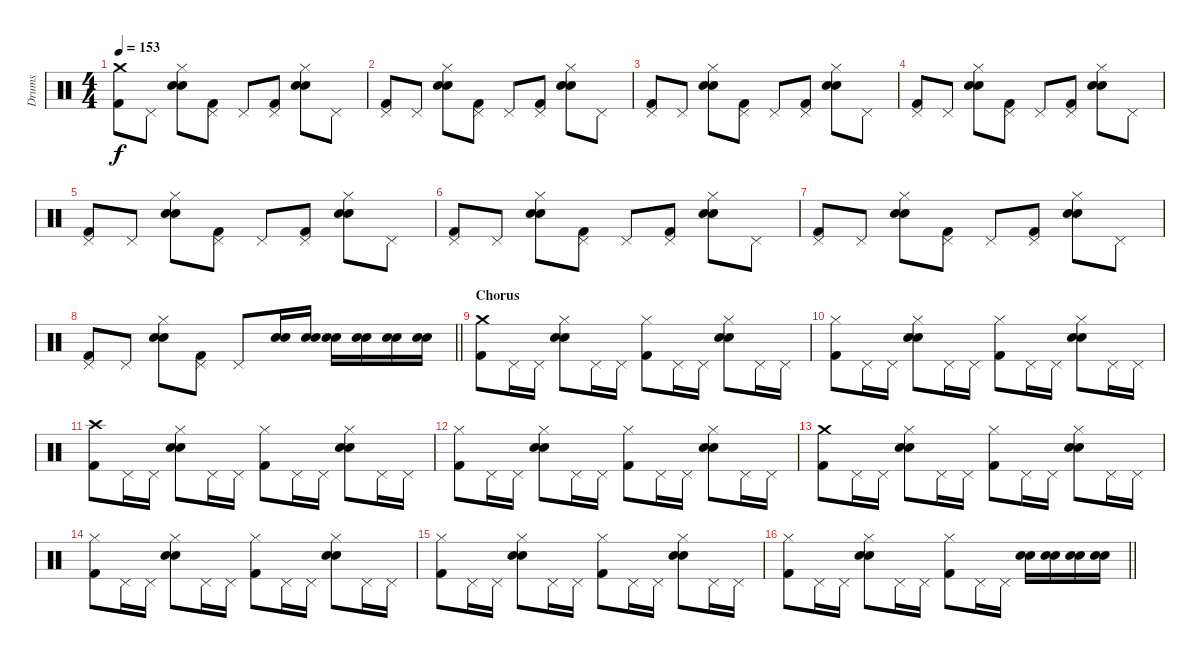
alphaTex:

\track ("Drums" "Drums") {instrument percussion}
\staff {score}
\articulation defaults
\ts (4 4)
\section ("" "")
\tempo 153
\clef neutral
\ks c
("Crash medium (hit)" "Kick (hit) 2").8{dy f} "Pedal Hi-Hat (hit)".8 ("Hi-Hat (closed)" "Electric Snare (hit)" "Snare (hit) 2").8 ("Pedal Hi-Hat (hit)" "Kick (hit) 2").8 "Pedal Hi-Hat (hit)".8 ("Pedal Hi-Hat (hit)" "Kick (hit) 2").8 ("Hi-Hat (closed)" "Electric Snare (hit)" "Snare (hit) 2").8 "Pedal Hi-Hat (hit)".8 |
("Pedal Hi-Hat (hit)" "Kick (hit) 2").8 "Pedal Hi-Hat (hit)".8 ("Hi-Hat (closed)" "Electric Snare (hit)" "Snare (hit) 2").8 ("Pedal Hi-Hat (hit)" "Kick (hit) 2").8 "Pedal Hi-Hat (hit)".8 ("Pedal Hi-Hat (hit)" "Kick (hit) 2").8 ("Hi-Hat (closed)" "Electric Snare (hit)" "Snare (hit) 2").8 "Pedal Hi-Hat (hit)".8 |
("Pedal Hi-Hat (hit)" "Kick (hit) 2").8 "Pedal Hi-Hat (hit)".8 ("Hi-Hat (closed)" "Electric Snare (hit)" "Snare (hit) 2").8 ("Pedal Hi-Hat (hit)" "Kick (hit) 2").8 "Pedal Hi-Hat (hit)".8 ("Pedal Hi-Hat (hit)" "Kick (hit) 2").8 ("Hi-Hat (closed)" "Electric Snare (hit)" "Snare (hit) 2").8 "Pedal Hi-Hat (hit)".8 |
("Pedal Hi-Hat (hit)" "Kick (hit) 2").8 "Pedal Hi-Hat (hit)".8 ("Hi-Hat (closed)" "Electric Snare (hit)" "Snare (hit) 2").8 ("Pedal Hi-Hat (hit)" "Kick (hit) 2").8 "Pedal Hi-Hat (hit)".8 ("Pedal Hi-Hat (hit)" "Kick (hit) 2").8 ("Hi-Hat (closed)" "Electric Snare (hit)" "Snare (hit) 2").8 "Pedal Hi-Hat (hit)".8 |
("Pedal Hi-Hat (hit)" "Kick (hit) 2").8 "Pedal Hi-Hat (hit)".8 ("Hi-Hat (closed)" "Electric Snare (hit)" "Snare (hit) 2").8 ("Pedal Hi-Hat (hit)" "Kick (hit) 2").8 "Pedal Hi-Hat (hit)".8 ("Pedal Hi-Hat (hit)" "Kick (hit) 2").8 ("Hi-Hat (closed)" "Electric Snare (hit)" "Snare (hit) 2").8 "Pedal Hi-Hat (hit)".8 |
("Pedal Hi-Hat (hit)" "Kick (hit) 2").8 "Pedal Hi-Hat (hit)".8 ("Hi-Hat (closed)" "Electric Snare (hit)" "Snare (hit) 2").8 ("Pedal Hi-Hat (hit)" "Kick (hit) 2").8 "Pedal Hi-Hat (hit)".8 ("Pedal Hi-Hat (hit)" "Kick (hit) 2").8 ("Hi-Hat (closed)" "Electric Snare (hit)" "Snare (hit) 2").8 "Pedal Hi-Hat (hit)".8 |
("Pedal Hi-Hat (hit)" "Kick (hit) 2").8 "Pedal Hi-Hat (hit)".8 ("Hi-Hat (closed)" "Electric Snare (hit)" "Snare (hit) 2").8 ("Pedal Hi-Hat (hit)" "Kick (hit) 2").8 "Pedal Hi-Hat (hit)".8 ("Pedal Hi-Hat (hit)" "Kick (hit) 2").8 ("Hi-Hat (closed)" "Electric Snare (hit)" "Snare (hit) 2").8 "Pedal Hi-Hat (hit)".8 |
\barLineRight lightlight
("Pedal Hi-Hat (hit)" "Kick (hit) 2").8 "Pedal Hi-Hat (hit)".8 ("Hi-Hat (closed)" "Electric Snare (hit)" "Snare (hit) 2").8 ("Pedal Hi-Hat (hit)" "Kick (hit) 2").8 "Pedal Hi-Hat (hit)".8 ("Electric Snare (hit)" "Snare (hit) 2").16 ("Electric Snare (hit)" "Snare (hit) 2").16 ("Electric Snare (hit)" "Snare (hit) 2").16 ("Electric Snare (hit)" "Snare (hit) 2").16 ("Electric Snare (hit)" "Snare (hit) 2").16 ("Electric Snare (hit)" "Snare (hit) 2").16 |
\section ("" "Chorus")
("Crash medium (hit)" "Kick (hit) 2").8 "Pedal Hi-Hat (hit)".16 "Pedal Hi-Hat (hit)".16 ("Hi-Hat (closed)" "Electric Snare (hit)" "Snare (hit) 2").8 "Pedal Hi-Hat (hit)".16 "Pedal Hi-Hat (hit)".16 ("Hi-Hat (closed)" "Kick (hit) 2").8 "Pedal Hi-Hat (hit)".16 "Pedal Hi-Hat (hit)".16 ("Hi-Hat (closed)" "Electric Snare (hit)" "Snare (hit) 2").8 "Pedal Hi-Hat (hit)".16 "Pedal Hi-Hat (hit)".16 |
("Hi-Hat (closed)" "Kick (hit) 2").8 "Pedal Hi-Hat (hit)".16 "Pedal Hi-Hat (hit)".16 ("Hi-Hat (closed)" "Electric Snare (hit)" "Snare (hit) 2").8 "Pedal Hi-Hat (hit)".16 "Pedal Hi-Hat (hit)".16 ("Hi-Hat (closed)" "Kick (hit) 2").8 "Pedal Hi-Hat (hit)".16 "Pedal Hi-Hat (hit)".16 ("Hi-Hat (closed)" "Electric Snare (hit)" "Snare (hit) 2").8 "Pedal Hi-Hat (hit)".16 "Pedal Hi-Hat (hit)".16 |
("Crash high (hit)" "Kick (hit) 2").8 "Pedal Hi-Hat (hit)".16 "Pedal Hi-Hat (hit)".16 ("Hi-Hat (closed)" "Electric Snare (hit)" "Snare (hit) 2").8 "Pedal Hi-Hat (hit)".16 "Pedal Hi-Hat (hit)".16 ("Hi-Hat (closed)" "Kick (hit) 2").8 "Pedal Hi-Hat (hit)".16 "Pedal Hi-Hat (hit)".16 ("Hi-Hat (closed)" "Electric Snare (hit)" "Snare (hit) 2").8 "Pedal Hi-Hat (hit)".16 "Pedal Hi-Hat (hit)".16 |
("Hi-Hat (closed)" "Kick (hit) 2").8 "Pedal Hi-Hat (hit)".16 "Pedal Hi-Hat (hit)".16 ("Hi-Hat (closed)" "Electric Snare (hit)" "Snare (hit) 2").8 "Pedal Hi-Hat (hit)".16 "Pedal Hi-Hat (hit)".16 ("Hi-Hat (closed)" "Kick (hit) 2").8 "Pedal Hi-Hat (hit)".16 "Pedal Hi-Hat (hit)".16 ("Hi-Hat (closed)" "Electric Snare (hit)" "Snare (hit) 2").8 "Pedal Hi-Hat (hit)".16 "Pedal Hi-Hat (hit)".16 |
("Crash medium (hit)" "Kick (hit) 2").8 "Pedal Hi-Hat (hit)".16 "Pedal Hi-Hat (hit)".16 ("Hi-Hat (closed)" "Electric Snare (hit)" "Snare (hit) 2").8 "Pedal Hi-Hat (hit)".16 "Pedal Hi-Hat (hit)".16 ("Hi-Hat (closed)" "Kick (hit) 2").8 "Pedal Hi-Hat (hit)".16 "Pedal Hi-Hat (hit)".16 ("Hi-Hat (closed)" "Electric Snare (hit)" "Snare (hit) 2").8 "Pedal Hi-Hat (hit)".16 "Pedal Hi-Hat (hit)".16 |
("Hi-Hat (closed)" "Kick (hit) 2").8 "Pedal Hi-Hat (hit)".16 "Pedal Hi-Hat (hit)".16 ("Hi-Hat (closed)" "Electric Snare (hit)" "Snare (hit) 2").8 "Pedal Hi-Hat (hit)".16 "Pedal Hi-Hat (hit)".16 ("Hi-Hat (closed)" "Kick (hit) 2").8 "Pedal Hi-Hat (hit)".16 "Pedal Hi-Hat (hit)".16 ("Hi-Hat (closed)" "Electric Snare (hit)" "Snare (hit) 2").8 "Pedal Hi-Hat (hit)".16 "Pedal Hi-Hat (hit)".16 |
("Hi-Hat (closed)" "Kick (hit) 2").8 "Pedal Hi-Hat (hit)".16 "Pedal Hi-Hat (hit)".16 ("Hi-Hat (closed)" "Electric Snare (hit)" "Snare (hit) 2").8 "Pedal Hi-Hat (hit)".16 "Pedal Hi-Hat (hit)".16 ("Hi-Hat (closed)" "Kick (hit) 2").8 "Pedal Hi-Hat (hit)".16 "Pedal Hi-Hat (hit)".16 ("Hi-Hat (closed)" "Electric Snare (hit)" "Snare (hit) 2").8 "Pedal Hi-Hat (hit)".16 "Pedal Hi-Hat (hit)".16 |
\barLineRight lightlight
("Hi-Hat (closed)" "Kick (hit) 2").8 "Pedal Hi-Hat (hit)".16 "Pedal Hi-Hat (hit)".16 ("Hi-Hat (closed)" "Electric Snare (hit)" "Snare (hit) 2").8 "Pedal Hi-Hat (hit)".16 "Pedal Hi-Hat (hit)".16 ("Hi-Hat (closed)" "Kick (hit) 2").8 "Pedal Hi-Hat (hit)".16 "Pedal Hi-Hat (hit)".16 ("Electric Snare (hit)" "Snare (hit) 2").16 ("Electric Snare (hit)" "Snare (hit) 2").16 ("Electric Snare (hit)" "Snare (hit) 2").16 ("Electric Snare (hit)" "Snare (hit) 2").16
